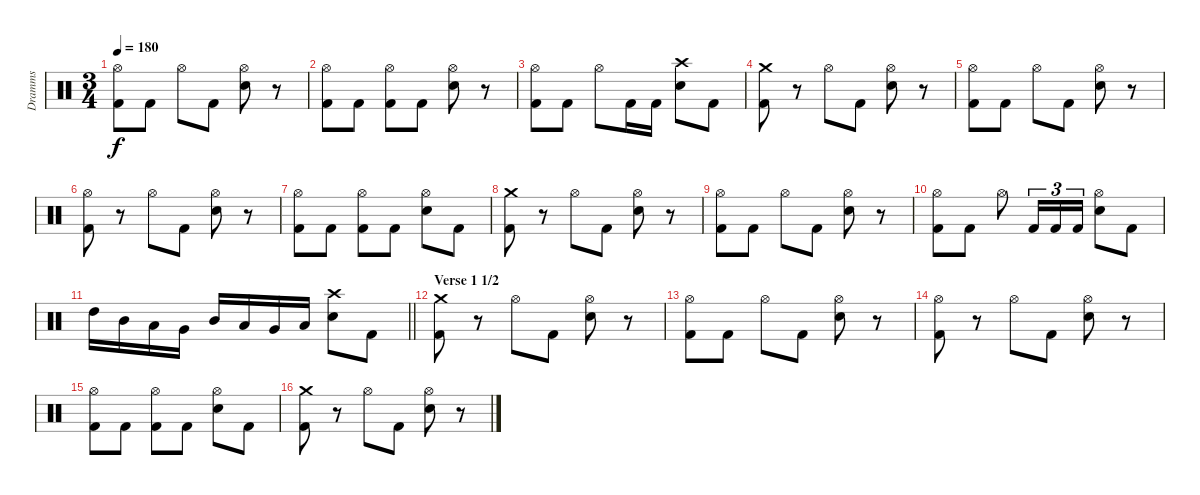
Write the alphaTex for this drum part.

\track ("Dramms" "Dramms") {instrument percussion}
\staff {score}
\articulation defaults
\ts (3 4)
\tempo 180
\clef neutral
\ks c
("Hi-Hat (open)" "Kick (hit) 2").8{dy f} "Kick (hit) 2".8 "Hi-Hat (open)".8 "Kick (hit) 2".8 ("Hi-Hat (open)" "Electric Snare (hit)").8 r.8 |
("Hi-Hat (open)" "Kick (hit) 2").8 "Kick (hit) 2".8 ("Hi-Hat (open)" "Kick (hit) 2").8 "Kick (hit) 2".8 ("Hi-Hat (open)" "Electric Snare (hit)").8 r.8 |
("Hi-Hat (open)" "Kick (hit) 2").8 "Kick (hit) 2".8 "Hi-Hat (open)".8 "Kick (hit) 2".16 "Kick (hit) 2".16 ("Crash high (hit)" "Electric Snare (hit)").8 "Kick (hit) 2".8 |
("Crash medium (hit)" "Kick (hit) 2").8 r.8 "Hi-Hat (open)".8 "Kick (hit) 2".8 ("Hi-Hat (open)" "Electric Snare (hit)").8 r.8 |
("Hi-Hat (open)" "Kick (hit) 2").8 "Kick (hit) 2".8 "Hi-Hat (open)".8 "Kick (hit) 2".8 ("Hi-Hat (open)" "Electric Snare (hit)").8 r.8 |
("Hi-Hat (open)" "Kick (hit) 2").8 r.8 "Hi-Hat (open)".8 "Kick (hit) 2".8 ("Hi-Hat (open)" "Electric Snare (hit)").8 r.8 |
("Hi-Hat (open)" "Kick (hit) 2").8 "Kick (hit) 2".8 ("Hi-Hat (open)" "Kick (hit) 2").8 "Kick (hit) 2".8 ("Hi-Hat (open)" "Electric Snare (hit)").8 "Kick (hit) 2".8 |
("Crash medium (hit)" "Kick (hit) 2").8 r.8 "Hi-Hat (open)".8 "Kick (hit) 2".8 ("Hi-Hat (open)" "Electric Snare (hit)").8 r.8 |
("Hi-Hat (open)" "Kick (hit) 2").8 "Kick (hit) 2".8 "Hi-Hat (open)".8 "Kick (hit) 2".8 ("Hi-Hat (open)" "Electric Snare (hit)").8 r.8 |
("Hi-Hat (open)" "Kick (hit) 2").8 "Kick (hit) 2".8 "Hi-Hat (open)".8 "Kick (hit) 2".16{tu (3 2)} "Kick (hit) 2".16{tu (3 2)} "Kick (hit) 2".16{tu (3 2)} ("Hi-Hat (open)" "Electric Snare (hit)").8 "Kick (hit) 2".8 |
\barLineRight lightlight "High Tom (hit)".16 "Mid Tom (hit)".16 "Low Tom (hit)".16 "Very Low Tom (hit)".16 "Mid Tom (hit)".16 "Low Tom (hit)".16 "Very Low Tom (hit)".16 "Low Floor Tom (hit)".16
("Crash high (hit)" "Electric Snare (hit)").8 "Kick (hit) 2".8 |
\section ("" "Verse 1 1/2")
("Crash medium (hit)" "Kick (hit) 2").8 r.8 "Hi-Hat (open)".8 "Kick (hit) 2".8 ("Hi-Hat (open)" "Electric Snare (hit)").8 r.8 |
("Hi-Hat (open)" "Kick (hit) 2").8 "Kick (hit) 2".8 "Hi-Hat (open)".8 "Kick (hit) 2".8 ("Hi-Hat (open)" "Electric Snare (hit)").8 r.8 |
("Hi-Hat (open)" "Kick (hit) 2").8 r.8 "Hi-Hat (open)".8 "Kick (hit) 2".8 ("Hi-Hat (open)" "Electric Snare (hit)").8 r.8 |
("Hi-Hat (open)" "Kick (hit) 2").8 "Kick (hit) 2".8 ("Hi-Hat (open)" "Kick (hit) 2").8 "Kick (hit) 2".8 ("Hi-Hat (open)" "Electric Snare (hit)").8 "Kick (hit) 2".8 |
("Crash medium (hit)" "Kick (hit) 2").8 r.8 "Hi-Hat (open)".8 "Kick (hit) 2".8 ("Hi-Hat (open)" "Electric Snare (hit)").8 r.8
